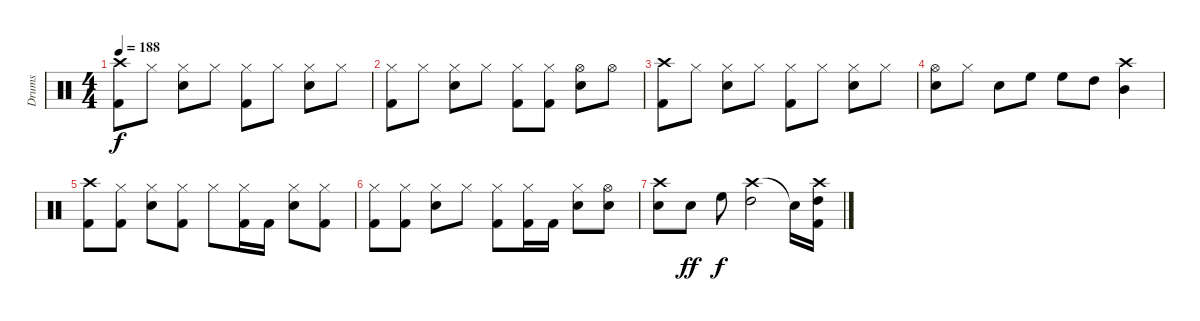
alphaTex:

\track ("Drums" "Drums") {instrument percussion}
\staff {score}
\articulation defaults
\ts (4 4)
\tempo 188
\clef neutral
\ks c
("Crash high (hit)" "Kick (hit) 2").8{dy f} "Hi-Hat (closed)".8 ("Hi-Hat (closed)" "Snare (hit) 2").8 "Hi-Hat (closed)".8 ("Hi-Hat (closed)" "Kick (hit) 2").8 "Hi-Hat (closed)".8 ("Hi-Hat (closed)" "Snare (hit) 2").8 "Hi-Hat (closed)".8 |
("Hi-Hat (closed)" "Kick (hit) 2").8 "Hi-Hat (closed)".8 ("Hi-Hat (closed)" "Snare (hit) 2").8 "Hi-Hat (closed)".8 ("Hi-Hat (closed)" "Kick (hit) 2").8 ("Hi-Hat (closed)" "Kick (hit) 2").8 ("Hi-Hat (open)" "Snare (hit) 2").8 "Hi-Hat (open)".8 |
("Crash high (hit)" "Kick (hit) 2").8 "Hi-Hat (closed)".8 ("Hi-Hat (closed)" "Snare (hit) 2").8 "Hi-Hat (closed)".8 ("Hi-Hat (closed)" "Kick (hit) 2").8 "Hi-Hat (closed)".8 ("Hi-Hat (closed)" "Snare (hit) 2").8 "Hi-Hat (closed)".8 |
("Hi-Hat (open)" "Snare (hit) 2").8 "Hi-Hat (closed)".8 "Snare (hit) 2".8 "High Floor Tom (hit)".8 "High Floor Tom (hit)".8 "High Tom (hit)".8 ("Crash high (hit)" "Mid Tom (hit)").4 |
("Crash high (hit)" "Kick (hit) 2").8 ("Hi-Hat (closed)" "Kick (hit) 2").8 ("Hi-Hat (closed)" "Snare (hit) 2").8 ("Hi-Hat (closed)" "Kick (hit) 2").8 "Hi-Hat (closed)".8 ("Hi-Hat (closed)" "Kick (hit) 2").16 "Kick (hit) 2".16 ("Hi-Hat (closed)" "Snare (hit) 2").8 ("Hi-Hat (closed)" "Kick (hit) 2").8 |
("Hi-Hat (closed)" "Kick (hit) 2").8 ("Hi-Hat (closed)" "Kick (hit) 2").8 ("Hi-Hat (closed)" "Snare (hit) 2").8 "Hi-Hat (closed)".8 ("Hi-Hat (closed)" "Kick (hit) 2").8 ("Hi-Hat (closed)" "Kick (hit) 2").16 "Kick (hit) 2".16 ("Hi-Hat (closed)" "Snare (hit) 2").8 ("Hi-Hat (open)" "Snare (hit) 2").8 |
("Crash high (hit)" "Snare (hit) 2").8 "Snare (hit) 2".8{dy ff} "High Floor Tom (hit)".8{dy f} ("Crash high (hit)" "High Tom (hit)").2 "Snare (hit)"{t}.16 ("Crash high (hit)" "High Tom (hit)" "Kick (hit) 2").16
